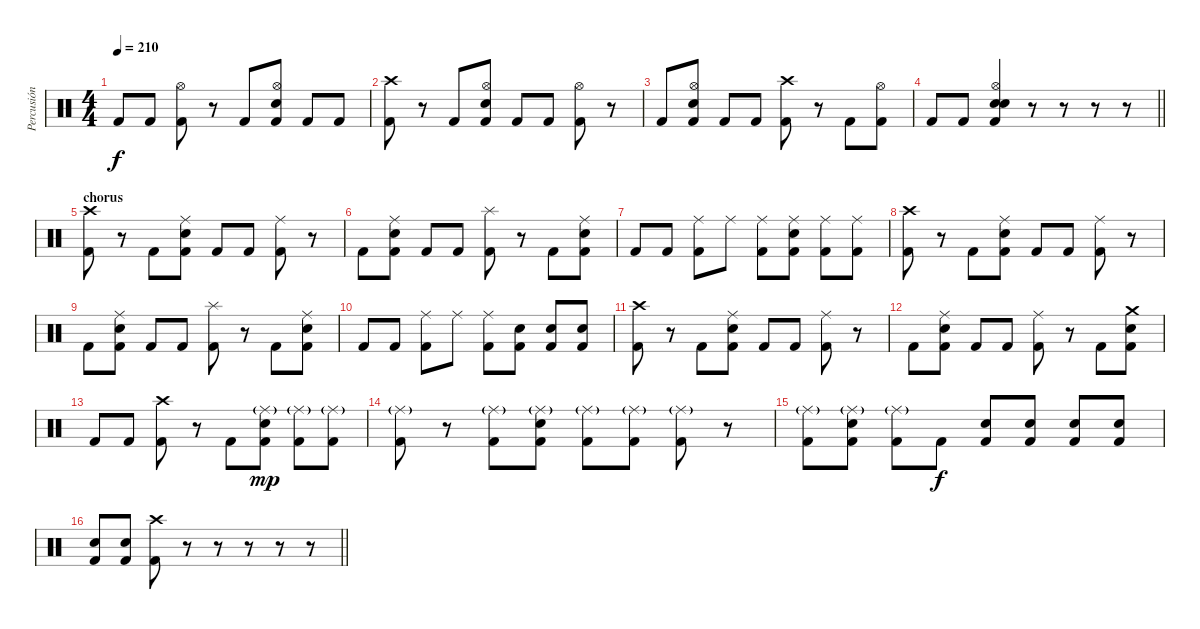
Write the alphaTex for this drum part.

\track ("Percusión" "Percusión") {instrument percussion}
\staff {score}
\articulation defaults
\ts (4 4)
\tempo 210
\clef neutral
\ks c "Kick (hit) 2".8{dy f} "Kick (hit) 2".8
("Hi-Hat (open)" "Kick (hit) 2").8 r.8 "Kick (hit) 2".8 ("Hi-Hat (open)" "Snare (hit) 2" "Kick (hit) 2").8 "Kick (hit) 2".8 "Kick (hit) 2".8 |
("Crash high (hit)" "Kick (hit) 2").8 r.8 "Kick (hit) 2".8 ("Hi-Hat (open)" "Snare (hit) 2" "Kick (hit) 2").8 "Kick (hit) 2".8 "Kick (hit) 2".8 ("Hi-Hat (open)" "Kick (hit) 2").8 r.8 |
"Kick (hit) 2".8 ("Hi-Hat (open)" "Snare (hit) 2" "Kick (hit) 2").8 "Kick (hit) 2".8 "Kick (hit) 2".8 ("Crash high (hit)" "Kick (hit) 2").8 r.8 "Kick (hit) 2".8 ("Hi-Hat (open)" "Kick (hit) 2").8 |
\barLineRight lightlight "Kick (hit) 2".8 "Kick (hit) 2".8
("Hi-Hat (open)" "Snare (hit) 2" "Electric Snare (hit)" "Kick (hit) 2").4 r.8 r.8 r.8 r.8 |
\section ("" "chorus")
("Crash high (hit)" "Kick (hit) 2").8 r.8 "Kick (hit) 2".8 ("Ride (middle)" "Snare (hit) 2" "Kick (hit) 2").8 "Kick (hit) 2".8 "Kick (hit) 2".8 ("Ride (middle)" "Kick (hit) 2").8 r.8 |
"Kick (hit) 2".8 ("Ride (middle)" "Snare (hit) 2" "Kick (hit) 2").8 "Kick (hit) 2".8 "Kick (hit) 2".8 ("Splash (hit)" "Kick (hit) 2").8 r.8 "Kick (hit) 2".8 ("Ride (middle)" "Snare (hit) 2" "Kick (hit) 2").8 |
"Kick (hit) 2".8 "Kick (hit) 2".8 ("Ride (middle)" "Kick (hit) 2").8 "Ride (middle)".8 ("Ride (middle)" "Kick (hit) 2").8 ("Ride (middle)" "Snare (hit) 2" "Kick (hit) 2").8 ("Ride (middle)" "Kick (hit) 2").8 ("Ride (middle)" "Kick (hit) 2").8 |
("Crash high (hit)" "Kick (hit) 2").8 r.8 "Kick (hit) 2".8 ("Ride (middle)" "Snare (hit) 2" "Kick (hit) 2").8 "Kick (hit) 2".8 "Kick (hit) 2".8 ("Ride (middle)" "Kick (hit) 2").8 r.8 |
"Kick (hit) 2".8 ("Ride (middle)" "Snare (hit) 2" "Kick (hit) 2").8 "Kick (hit) 2".8 "Kick (hit) 2".8 ("Splash (hit)" "Kick (hit) 2").8 r.8 "Kick (hit) 2".8 ("Ride (middle)" "Snare (hit) 2" "Kick (hit) 2").8 |
"Kick (hit) 2".8 "Kick (hit) 2".8 ("Ride (middle)" "Kick (hit) 2").8 "Ride (middle)".8 ("Ride (middle)" "Kick (hit) 2").8 ("Snare (hit) 2" "Kick (hit) 2").8 ("Snare (hit) 2" "Kick (hit) 2").8 ("Snare (hit) 2" "Kick (hit) 2").8 |
("Crash high (hit)" "Kick (hit) 2").8 r.8 "Kick (hit) 2".8 ("Ride (middle)" "Snare (hit) 2" "Kick (hit) 2").8 "Kick (hit) 2".8 "Kick (hit) 2".8 ("Ride (middle)" "Kick (hit) 2").8 r.8 |
"Kick (hit) 2".8 ("Ride (middle)" "Snare (hit) 2" "Kick (hit) 2").8 "Kick (hit) 2".8 "Kick (hit) 2".8 ("Ride (middle)" "Kick (hit) 2").8 r.8 "Kick (hit) 2".8 ("Crash medium (hit)" "Snare (hit) 2" "Kick (hit) 2").8 |
"Kick (hit) 2".8 "Kick (hit) 2".8 ("Crash high (hit)" "Kick (hit) 2").8 r.8 "Kick (hit) 2".8 ("Ride (middle)"{g} "Snare (hit) 2" "Kick (hit) 2").8{dy mp} ("Ride (middle)"{g} "Kick (hit) 2").8 ("Ride (middle)"{g} "Kick (hit) 2").8 |
("Ride (middle)"{g} "Kick (hit) 2").8 r.8 ("Ride (middle)"{g} "Kick (hit) 2").8 ("Ride (middle)"{g} "Snare (hit) 2" "Kick (hit) 2").8 ("Ride (middle)"{g} "Kick (hit) 2").8 ("Ride (middle)"{g} "Kick (hit) 2").8 ("Ride (middle)"{g} "Kick (hit) 2").8 r.8 |
("Ride (middle)"{g} "Kick (hit) 2").8 ("Ride (middle)"{g} "Snare (hit) 2" "Kick (hit) 2").8 ("Ride (middle)"{g} "Kick (hit) 2").8 "Kick (hit) 2".8{dy f} ("Electric Snare (hit)" "Kick (hit) 2").8 ("Electric Snare (hit)" "Kick (hit) 2").8 ("Electric Snare (hit)" "Kick (hit) 2").8 ("Electric Snare (hit)" "Kick (hit) 2").8 |
\barLineRight lightlight
("Electric Snare (hit)" "Kick (hit) 2").8 ("Electric Snare (hit)" "Kick (hit) 2").8 ("Crash high (hit)" "Kick (hit) 2").8 r.8 r.8 r.8 r.8 r.8
